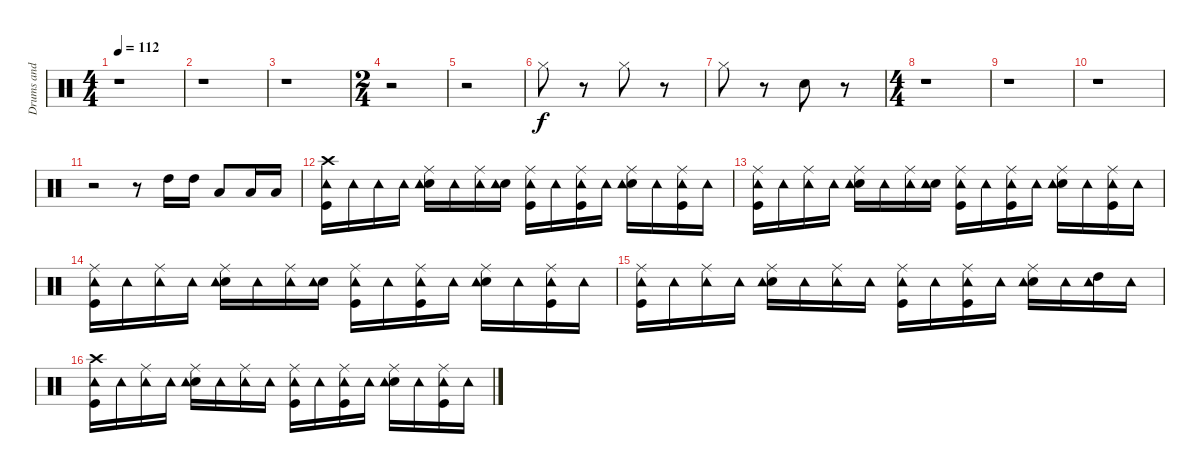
\track ("Drums and Percussions" "Drums and ") {instrument percussion}
\staff {score}
\articulation defaults
\ts (4 4)
\tempo 112
\clef neutral
\ks c
r.1{dy f} |
r.1 |
r.1 |
\ts (2 4)
r.2 |
r.2 |
"Hi-Hat (closed)".8 r.8 "Hi-Hat (closed)".8 r.8 |
"Hi-Hat (closed)".8 r.8 "Electric Snare (hit)".8 r.8 |
\ts (4 4)
r.1 |
r.1 |
r.1 |
r.2 r.8 "High Tom (hit)".16 "High Tom (hit)".16 "Low Tom (hit)".8 "Low Tom (hit)".16 "Low Tom (hit)".16 |
("Crash high (hit)" "Kick (hit)" "Tambourine (hit)").16 "Tambourine (hit)".16 "Tambourine (hit)".16 "Tambourine (hit)".16 ("Ride (middle)" "Electric Snare (hit)" "Tambourine (hit)").16 "Tambourine (hit)".16 ("Ride (middle)" "Tambourine (hit)").16 ("Electric Snare (hit)" "Tambourine (hit)").16 ("Kick (hit)" "Ride (middle)" "Tambourine (hit)").16 "Tambourine (hit)".16 ("Ride (middle)" "Kick (hit)" "Tambourine (hit)").16 "Tambourine (hit)".16 ("Electric Snare (hit)" "Ride (middle)" "Tambourine (hit)").16 "Tambourine (hit)".16 ("Ride (middle)" "Kick (hit)" "Tambourine (hit)").16 "Tambourine (hit)".16 |
("Kick (hit)" "Ride (middle)" "Tambourine (hit)").16 "Tambourine (hit)".16 ("Ride (middle)" "Tambourine (hit)").16 "Tambourine (hit)".16 ("Electric Snare (hit)" "Ride (middle)" "Tambourine (hit)").16 "Tambourine (hit)".16 ("Ride (middle)" "Tambourine (hit)").16 ("Electric Snare (hit)" "Tambourine (hit)").16 ("Kick (hit)" "Ride (middle)" "Tambourine (hit)").16 "Tambourine (hit)".16 ("Ride (middle)" "Kick (hit)" "Tambourine (hit)").16 "Tambourine (hit)".16 ("Ride (middle)" "Electric Snare (hit)" "Tambourine (hit)").16 "Tambourine (hit)".16 ("Ride (middle)" "Kick (hit)" "Tambourine (hit)").16 "Tambourine (hit)".16 |
("Ride (middle)" "Kick (hit)" "Tambourine (hit)").16 "Tambourine (hit)".16 ("Ride (middle)" "Tambourine (hit)").16 "Tambourine (hit)".16 ("Ride (middle)" "Electric Snare (hit)" "Tambourine (hit)").16 "Tambourine (hit)".16 ("Ride (middle)" "Tambourine (hit)").16 ("Electric Snare (hit)" "Tambourine (hit)").16 ("Ride (middle)" "Kick (hit)" "Tambourine (hit)").16 "Tambourine (hit)".16 ("Ride (middle)" "Kick (hit)" "Tambourine (hit)").16 "Tambourine (hit)".16 ("Electric Snare (hit)" "Ride (middle)" "Tambourine (hit)").16 "Tambourine (hit)".16 ("Ride (middle)" "Kick (hit)" "Tambourine (hit)").16 "Tambourine (hit)".16 |
("Ride (middle)" "Kick (hit)" "Tambourine (hit)").16 "Tambourine (hit)".16 ("Ride (middle)" "Tambourine (hit)").16 "Tambourine (hit)".16 ("Electric Snare (hit)" "Ride (middle)" "Tambourine (hit)").16 "Tambourine (hit)".16 ("Ride (middle)" "Tambourine (hit)").16 "Tambourine (hit)".16 ("Kick (hit)" "Ride (middle)" "Tambourine (hit)").16 "Tambourine (hit)".16 ("Kick (hit)" "Ride (middle)" "Tambourine (hit)").16 "Tambourine (hit)".16 ("Electric Snare (hit)" "Ride (middle)" "Tambourine (hit)").16 "Tambourine (hit)".16 ("High Tom (hit)" "Tambourine (hit)").16 "Tambourine (hit)".16 |
("Crash high (hit)" "Kick (hit)" "Tambourine (hit)").16 "Tambourine (hit)".16 ("Ride (middle)" "Tambourine (hit)").16 "Tambourine (hit)".16 ("Electric Snare (hit)" "Ride (middle)" "Tambourine (hit)").16 "Tambourine (hit)".16 ("Ride (middle)" "Tambourine (hit)").16 "Tambourine (hit)".16 ("Kick (hit)" "Ride (middle)" "Tambourine (hit)").16 "Tambourine (hit)".16 ("Ride (middle)" "Kick (hit)" "Tambourine (hit)").16 "Tambourine (hit)".16 ("Ride (middle)" "Electric Snare (hit)" "Tambourine (hit)").16 "Tambourine (hit)".16 ("Kick (hit)" "Ride (middle)" "Tambourine (hit)").16 "Tambourine (hit)".16
